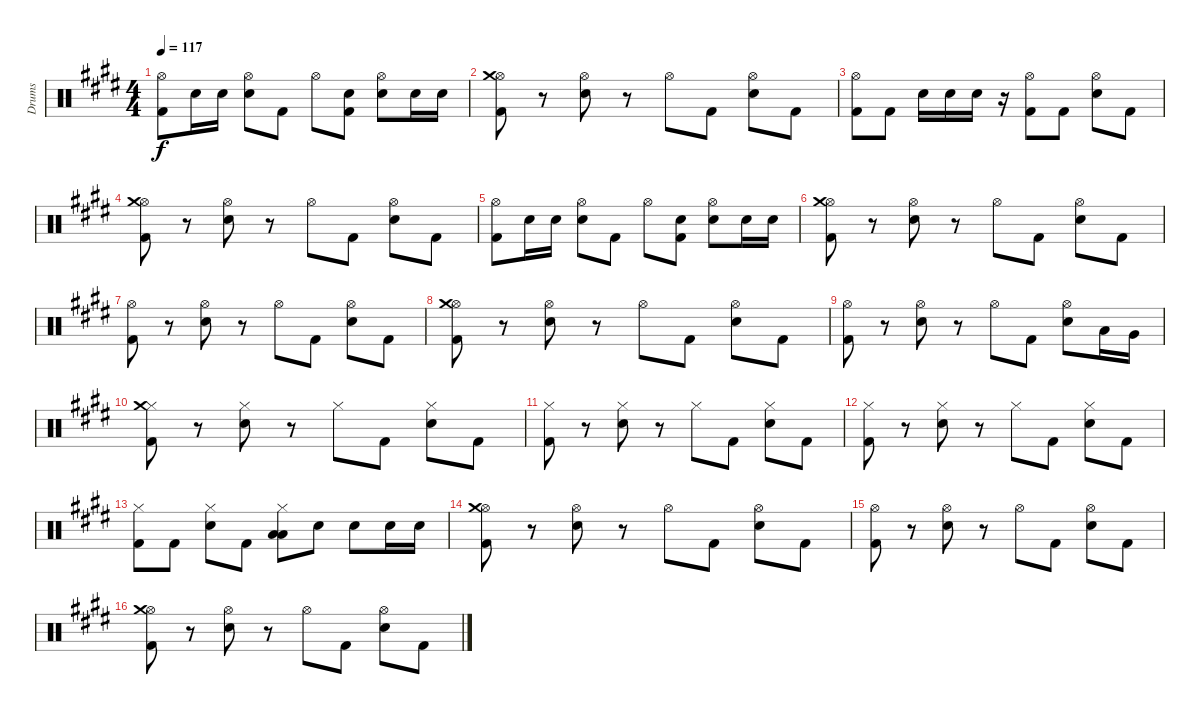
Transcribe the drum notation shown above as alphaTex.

\track ("Drums" "Drums") {instrument percussion}
\staff {score}
\articulation defaults
\ts (4 4)
\tempo 117
\clef neutral
\ks c#minor
("Hi-Hat (open)" "Kick (hit) 2").8{dy f} "Snare (hit) 2".16 "Snare (hit) 2".16 ("Hi-Hat (open)" "Snare (hit) 2").8 "Kick (hit) 2".8 "Hi-Hat (open)".8 ("Kick (hit) 2" "Snare (hit) 2").8 ("Hi-Hat (open)" "Snare (hit) 2").8 "Snare (hit) 2".16 "Snare (hit) 2".16 |
("Hi-Hat (open)" "Kick (hit) 2" "Crash medium (hit)").8 r.8 ("Hi-Hat (open)" "Snare (hit) 2").8 r.8 "Hi-Hat (open)".8 "Kick (hit) 2".8 ("Hi-Hat (open)" "Snare (hit) 2").8 "Kick (hit) 2".8 |
("Hi-Hat (open)" "Kick (hit) 2").8 "Kick (hit) 2".8 "Snare (hit) 2".16 "Snare (hit) 2".16 "Snare (hit) 2".16 r.16 ("Hi-Hat (open)" "Kick (hit) 2").8 "Kick (hit) 2".8 ("Hi-Hat (open)" "Snare (hit) 2").8 "Kick (hit) 2".8 |
("Hi-Hat (open)" "Kick (hit) 2" "Crash medium (hit)").8 r.8 ("Hi-Hat (open)" "Snare (hit) 2").8 r.8 "Hi-Hat (open)".8 "Kick (hit) 2".8 ("Hi-Hat (open)" "Snare (hit) 2").8 "Kick (hit) 2".8 |
("Hi-Hat (open)" "Kick (hit) 2").8 "Snare (hit) 2".16 "Snare (hit) 2".16 ("Hi-Hat (open)" "Snare (hit) 2").8 "Kick (hit) 2".8 "Hi-Hat (open)".8 ("Kick (hit) 2" "Snare (hit) 2").8 ("Hi-Hat (open)" "Snare (hit) 2").8 "Snare (hit) 2".16 "Snare (hit) 2".16 |
("Hi-Hat (open)" "Kick (hit) 2" "Crash medium (hit)").8 r.8 ("Hi-Hat (open)" "Snare (hit) 2").8 r.8 "Hi-Hat (open)".8 "Kick (hit) 2".8 ("Hi-Hat (open)" "Snare (hit) 2").8 "Kick (hit) 2".8 |
("Hi-Hat (open)" "Kick (hit) 2").8 r.8 ("Hi-Hat (open)" "Snare (hit) 2").8 r.8 "Hi-Hat (open)".8 "Kick (hit) 2".8 ("Hi-Hat (open)" "Snare (hit) 2").8 "Kick (hit) 2".8 |
("Hi-Hat (open)" "Kick (hit) 2" "Crash medium (hit)").8 r.8 ("Hi-Hat (open)" "Snare (hit) 2").8 r.8 "Hi-Hat (open)".8 "Kick (hit) 2".8 ("Hi-Hat (open)" "Snare (hit) 2").8 "Kick (hit) 2".8 |
("Hi-Hat (open)" "Kick (hit) 2").8 r.8 ("Hi-Hat (open)" "Snare (hit) 2").8 r.8 "Hi-Hat (open)".8 "Kick (hit) 2".8 ("Hi-Hat (open)" "Snare (hit) 2").8 "Low Tom (hit)".16 "Very Low Tom (hit)".16 |
("Hi-Hat (closed)" "Kick (hit) 2" "Crash medium (hit)").8 r.8 ("Hi-Hat (closed)" "Snare (hit) 2").8 r.8 "Hi-Hat (closed)".8 "Kick (hit) 2".8 ("Hi-Hat (closed)" "Snare (hit) 2").8 "Kick (hit) 2".8 |
("Hi-Hat (closed)" "Kick (hit) 2").8 r.8 ("Hi-Hat (closed)" "Snare (hit) 2").8 r.8 "Hi-Hat (closed)".8 "Kick (hit) 2".8 ("Hi-Hat (closed)" "Snare (hit) 2").8 "Kick (hit) 2".8 |
("Hi-Hat (closed)" "Kick (hit) 2").8 r.8 ("Hi-Hat (closed)" "Snare (hit) 2").8 r.8 "Hi-Hat (closed)".8 "Kick (hit) 2".8 ("Hi-Hat (closed)" "Snare (hit) 2").8 "Kick (hit) 2".8 |
("Hi-Hat (closed)" "Kick (hit) 2").8 "Kick (hit) 2".8 ("Hi-Hat (closed)" "Snare (hit) 2").8 "Kick (hit) 2".8 ("Hi-Hat (closed)" "Low Floor Tom (hit)" "Low Tom (hit)").8 "Snare (hit) 2".8 "Snare (hit) 2".8 "Snare (hit) 2".16 "Snare (hit) 2".16 |
("Hi-Hat (open)" "Kick (hit) 2" "Crash medium (hit)").8 r.8 ("Hi-Hat (open)" "Snare (hit) 2").8 r.8 "Hi-Hat (open)".8 "Kick (hit) 2".8 ("Hi-Hat (open)" "Snare (hit) 2").8 "Kick (hit) 2".8 |
("Hi-Hat (open)" "Kick (hit) 2").8 r.8 ("Hi-Hat (open)" "Snare (hit) 2").8 r.8 "Hi-Hat (open)".8 "Kick (hit) 2".8 ("Hi-Hat (open)" "Snare (hit) 2").8 "Kick (hit) 2".8 |
("Hi-Hat (open)" "Kick (hit) 2" "Crash medium (hit)").8 r.8 ("Hi-Hat (open)" "Snare (hit) 2").8 r.8 "Hi-Hat (open)".8 "Kick (hit) 2".8 ("Hi-Hat (open)" "Snare (hit) 2").8 "Kick (hit) 2".8
